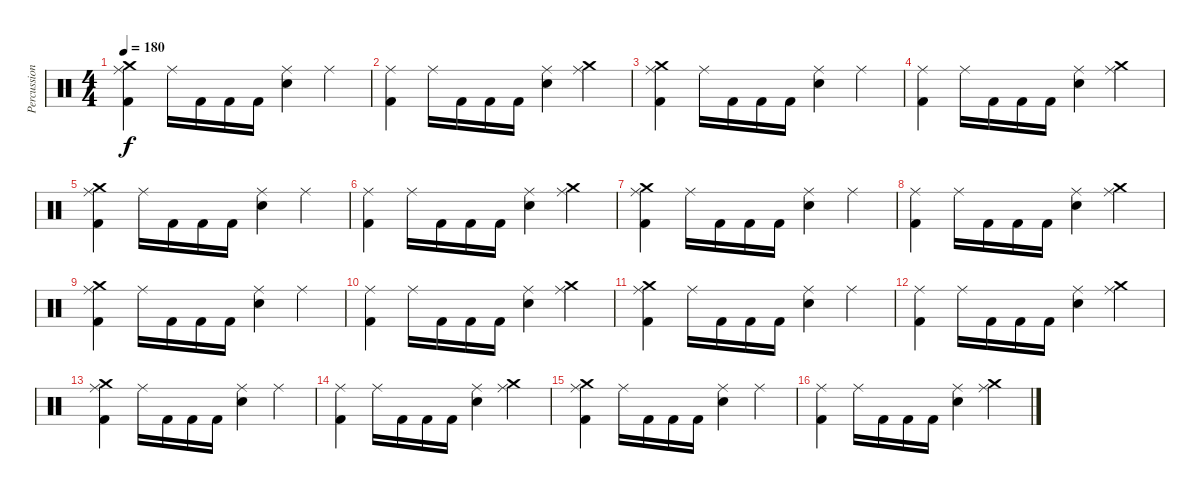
\track ("Percussioni" "Percussion") {instrument percussion}
\staff {score}
\articulation defaults
\ts (4 4)
\tempo 180
\clef neutral
\ks c
("Crash medium (hit)" "Ride (middle)" "Kick (hit) 2").4{dy f} "Ride (middle)".16 "Kick (hit) 2".16 "Kick (hit) 2".16 "Kick (hit) 2".16 ("Ride (middle)" "Electric Snare (hit)").4 "Ride (middle)".4 |
("Ride (middle)" "Kick (hit) 2").4 "Ride (middle)".16 "Kick (hit) 2".16 "Kick (hit) 2".16 "Kick (hit) 2".16 ("Ride (middle)" "Electric Snare (hit)").4 ("Crash medium (hit)" "Ride (middle)").4 |
("Crash medium (hit)" "Ride (middle)" "Kick (hit) 2").4 "Ride (middle)".16 "Kick (hit) 2".16 "Kick (hit) 2".16 "Kick (hit) 2".16 ("Ride (middle)" "Electric Snare (hit)").4 "Ride (middle)".4 |
("Ride (middle)" "Kick (hit) 2").4 "Ride (middle)".16 "Kick (hit) 2".16 "Kick (hit) 2".16 "Kick (hit) 2".16 ("Ride (middle)" "Electric Snare (hit)").4 ("Crash medium (hit)" "Ride (middle)").4 |
("Crash medium (hit)" "Ride (middle)" "Kick (hit) 2").4 "Ride (middle)".16 "Kick (hit) 2".16 "Kick (hit) 2".16 "Kick (hit) 2".16 ("Ride (middle)" "Electric Snare (hit)").4 "Ride (middle)".4 |
("Ride (middle)" "Kick (hit) 2").4 "Ride (middle)".16 "Kick (hit) 2".16 "Kick (hit) 2".16 "Kick (hit) 2".16 ("Ride (middle)" "Electric Snare (hit)").4 ("Crash medium (hit)" "Ride (middle)").4 |
("Crash medium (hit)" "Ride (middle)" "Kick (hit) 2").4 "Ride (middle)".16 "Kick (hit) 2".16 "Kick (hit) 2".16 "Kick (hit) 2".16 ("Ride (middle)" "Electric Snare (hit)").4 "Ride (middle)".4 |
("Ride (middle)" "Kick (hit) 2").4 "Ride (middle)".16 "Kick (hit) 2".16 "Kick (hit) 2".16 "Kick (hit) 2".16 ("Ride (middle)" "Electric Snare (hit)").4 ("Crash medium (hit)" "Ride (middle)").4 |
("Crash medium (hit)" "Ride (middle)" "Kick (hit) 2").4 "Ride (middle)".16 "Kick (hit) 2".16 "Kick (hit) 2".16 "Kick (hit) 2".16 ("Ride (middle)" "Electric Snare (hit)").4 "Ride (middle)".4 |
("Ride (middle)" "Kick (hit) 2").4 "Ride (middle)".16 "Kick (hit) 2".16 "Kick (hit) 2".16 "Kick (hit) 2".16 ("Ride (middle)" "Electric Snare (hit)").4 ("Crash medium (hit)" "Ride (middle)").4 |
("Crash medium (hit)" "Ride (middle)" "Kick (hit) 2").4 "Ride (middle)".16 "Kick (hit) 2".16 "Kick (hit) 2".16 "Kick (hit) 2".16 ("Ride (middle)" "Electric Snare (hit)").4 "Ride (middle)".4 |
("Ride (middle)" "Kick (hit) 2").4 "Ride (middle)".16 "Kick (hit) 2".16 "Kick (hit) 2".16 "Kick (hit) 2".16 ("Ride (middle)" "Electric Snare (hit)").4 ("Crash medium (hit)" "Ride (middle)").4 |
("Crash medium (hit)" "Ride (middle)" "Kick (hit) 2").4 "Ride (middle)".16 "Kick (hit) 2".16 "Kick (hit) 2".16 "Kick (hit) 2".16 ("Ride (middle)" "Electric Snare (hit)").4 "Ride (middle)".4 |
("Ride (middle)" "Kick (hit) 2").4 "Ride (middle)".16 "Kick (hit) 2".16 "Kick (hit) 2".16 "Kick (hit) 2".16 ("Ride (middle)" "Electric Snare (hit)").4 ("Crash medium (hit)" "Ride (middle)").4 |
("Crash medium (hit)" "Ride (middle)" "Kick (hit) 2").4 "Ride (middle)".16 "Kick (hit) 2".16 "Kick (hit) 2".16 "Kick (hit) 2".16 ("Ride (middle)" "Electric Snare (hit)").4 "Ride (middle)".4 |
("Ride (middle)" "Kick (hit) 2").4 "Ride (middle)".16 "Kick (hit) 2".16 "Kick (hit) 2".16 "Kick (hit) 2".16 ("Ride (middle)" "Electric Snare (hit)").4 ("Crash medium (hit)" "Ride (middle)").4
